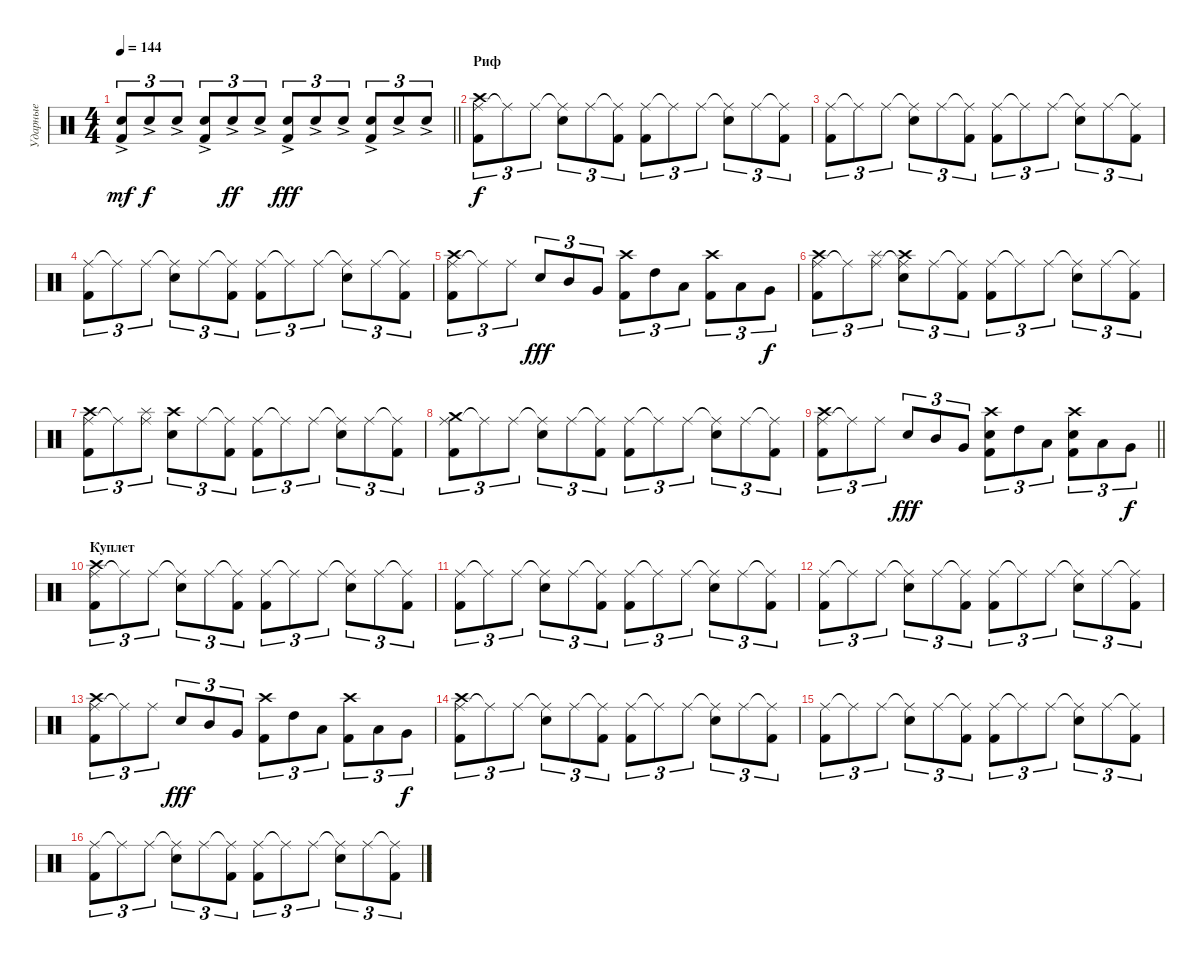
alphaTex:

\track ("Ударные" "Ударные") {instrument percussion}
\staff {score}
\articulation defaults
\ts (4 4)
\tempo 144
\clef neutral
\barLineRight lightlight
\ks c
("Snare (hit) 2"{ac} "Kick (hit) 2").8{tu (3 2) dy mf} "Snare (hit) 2"{ac}.8{tu (3 2) dy f} "Snare (hit) 2"{ac}.8{tu (3 2)} ("Snare (hit) 2"{ac} "Kick (hit) 2").8{tu (3 2)} "Snare (hit) 2"{ac}.8{tu (3 2) dy ff} "Snare (hit) 2"{ac}.8{tu (3 2)} ("Snare (hit) 2"{ac} "Kick (hit) 2").8{tu (3 2) dy fff} "Snare (hit) 2"{ac}.8{tu (3 2)} "Snare (hit) 2"{ac}.8{tu (3 2)} ("Snare (hit) 2"{ac} "Kick (hit) 2").8{tu (3 2)} "Snare (hit) 2"{ac}.8{tu (3 2)} "Snare (hit) 2"{ac}.8{tu (3 2)} |
\section ("" "Риф")
("Ride (middle)" "Kick (hit) 2" "Crash high (hit)").8{tu (3 2) dy f volume 14} "Ride (middle)"{t}.8{tu (3 2)} "Ride (middle)".8{tu (3 2)} ("Ride (middle)"{t} "Snare (hit) 2").8{tu (3 2)} "Ride (middle)".8{tu (3 2)} ("Ride (middle)"{t} "Kick (hit) 2").8{tu (3 2)} ("Ride (middle)" "Kick (hit) 2").8{tu (3 2)} "Ride (middle)"{t}.8{tu (3 2)} "Ride (middle)".8{tu (3 2)} ("Ride (middle)"{t} "Snare (hit) 2").8{tu (3 2)} "Ride (middle)".8{tu (3 2)} ("Ride (middle)"{t} "Kick (hit) 2").8{tu (3 2)} |
("Ride (middle)" "Kick (hit) 2").8{tu (3 2)} "Ride (middle)"{t}.8{tu (3 2)} "Ride (middle)".8{tu (3 2)} ("Ride (middle)"{t} "Snare (hit) 2").8{tu (3 2)} "Ride (middle)".8{tu (3 2)} ("Ride (middle)"{t} "Kick (hit) 2").8{tu (3 2)} ("Ride (middle)" "Kick (hit) 2").8{tu (3 2)} "Ride (middle)"{t}.8{tu (3 2)} "Ride (middle)".8{tu (3 2)} ("Ride (middle)"{t} "Snare (hit) 2").8{tu (3 2)} "Ride (middle)".8{tu (3 2)} ("Ride (middle)"{t} "Kick (hit) 2").8{tu (3 2)} |
("Ride (middle)" "Kick (hit) 2").8{tu (3 2)} "Ride (middle)"{t}.8{tu (3 2)} "Ride (middle)".8{tu (3 2)} ("Ride (middle)"{t} "Snare (hit) 2").8{tu (3 2)} "Ride (middle)".8{tu (3 2)} ("Ride (middle)"{t} "Kick (hit) 2").8{tu (3 2)} ("Ride (middle)" "Kick (hit) 2").8{tu (3 2)} "Ride (middle)"{t}.8{tu (3 2)} "Ride (middle)".8{tu (3 2)} ("Ride (middle)"{t} "Snare (hit) 2").8{tu (3 2)} "Ride (middle)".8{tu (3 2)} ("Ride (middle)"{t} "Kick (hit) 2").8{tu (3 2)} |
("Ride (middle)" "Kick (hit) 2" "Crash high (hit)").8{tu (3 2)} "Ride (middle)"{t}.8{tu (3 2)} "Ride (middle)".8{tu (3 2)} "Snare (hit) 2".8{tu (3 2) dy fff} "Mid Tom (hit)".8{tu (3 2)} "Very Low Tom (hit)".8{tu (3 2)} ("Kick (hit) 2" "Crash high (hit)").8{tu (3 2)} "High Tom (hit)".8{tu (3 2)} "Low Tom (hit)".8{tu (3 2)} ("Crash high (hit)" "Kick (hit) 2").8{tu (3 2)} "Low Tom (hit)".8{tu (3 2)} "Very Low Tom (hit)".8{tu (3 2) dy f} |
("Ride (middle)" "Kick (hit) 2" "Crash high (hit)").8{tu (3 2)} "Ride (middle)"{t}.8{tu (3 2)} ("Ride (middle)" "Splash (hit)").8{tu (3 2)} ("Ride (middle)"{t} "Snare (hit) 2" "Crash high (hit)").8{tu (3 2)} "Ride (middle)".8{tu (3 2)} ("Ride (middle)"{t} "Kick (hit) 2").8{tu (3 2)} ("Ride (middle)" "Kick (hit) 2").8{tu (3 2)} "Ride (middle)"{t}.8{tu (3 2)} "Ride (middle)".8{tu (3 2)} ("Ride (middle)"{t} "Snare (hit) 2").8{tu (3 2)} "Ride (middle)".8{tu (3 2)} ("Ride (middle)"{t} "Kick (hit) 2").8{tu (3 2)} |
("Ride (middle)" "Kick (hit) 2" "Crash high (hit)").8{tu (3 2)} "Ride (middle)"{t}.8{tu (3 2)} ("Ride (middle)" "Splash (hit)").8{tu (3 2)} ("Crash high (hit)" "Snare (hit) 2").8{tu (3 2)} "Ride (middle)".8{tu (3 2)} ("Ride (middle)"{t} "Kick (hit) 2").8{tu (3 2)} ("Ride (middle)" "Kick (hit) 2").8{tu (3 2)} "Ride (middle)"{t}.8{tu (3 2)} "Ride (middle)".8{tu (3 2)} ("Ride (middle)"{t} "Snare (hit) 2").8{tu (3 2)} "Ride (middle)".8{tu (3 2)} ("Ride (middle)"{t} "Kick (hit) 2").8{tu (3 2)} |
("Ride (middle)" "Kick (hit) 2" "Crash medium (hit)").8{tu (3 2)} "Ride (middle)"{t}.8{tu (3 2)} "Ride (middle)".8{tu (3 2)} ("Ride (middle)"{t} "Snare (hit) 2").8{tu (3 2)} "Ride (middle)".8{tu (3 2)} ("Ride (middle)"{t} "Kick (hit) 2").8{tu (3 2)} ("Ride (middle)" "Kick (hit) 2").8{tu (3 2)} "Ride (middle)"{t}.8{tu (3 2)} "Ride (middle)".8{tu (3 2)} ("Ride (middle)"{t} "Snare (hit) 2").8{tu (3 2)} "Ride (middle)".8{tu (3 2)} ("Ride (middle)"{t} "Kick (hit) 2").8{tu (3 2)} |
\barLineRight lightlight
("Ride (middle)" "Kick (hit) 2" "Crash high (hit)").8{tu (3 2)} "Ride (middle)"{t}.8{tu (3 2)} "Ride (middle)".8{tu (3 2)} "Snare (hit) 2".8{tu (3 2) dy fff} "Mid Tom (hit)".8{tu (3 2)} "Very Low Tom (hit)".8{tu (3 2)} ("Kick (hit) 2" "Crash high (hit)" "Snare (hit) 2").8{tu (3 2)} "High Tom (hit)".8{tu (3 2)} "Low Tom (hit)".8{tu (3 2)} ("Crash high (hit)" "Kick (hit) 2" "Snare (hit) 2").8{tu (3 2)} "Low Tom (hit)".8{tu (3 2)} "Very Low Tom (hit)".8{tu (3 2) dy f} |
\section ("" "Куплет")
("Ride (middle)" "Kick (hit) 2" "Crash high (hit)").8{tu (3 2)} "Ride (middle)"{t}.8{tu (3 2)} "Ride (middle)".8{tu (3 2)} ("Ride (middle)"{t} "Snare (hit) 2").8{tu (3 2)} "Ride (middle)".8{tu (3 2)} ("Ride (middle)"{t} "Kick (hit) 2").8{tu (3 2)} ("Ride (middle)" "Kick (hit) 2").8{tu (3 2)} "Ride (middle)"{t}.8{tu (3 2)} "Ride (middle)".8{tu (3 2)} ("Ride (middle)"{t} "Snare (hit) 2").8{tu (3 2)} "Ride (middle)".8{tu (3 2)} ("Ride (middle)"{t} "Kick (hit) 2").8{tu (3 2)} |
("Ride (middle)" "Kick (hit) 2").8{tu (3 2)} "Ride (middle)"{t}.8{tu (3 2)} "Ride (middle)".8{tu (3 2)} ("Ride (middle)"{t} "Snare (hit) 2").8{tu (3 2)} "Ride (middle)".8{tu (3 2)} ("Ride (middle)"{t} "Kick (hit) 2").8{tu (3 2)} ("Ride (middle)" "Kick (hit) 2").8{tu (3 2)} "Ride (middle)"{t}.8{tu (3 2)} "Ride (middle)".8{tu (3 2)} ("Ride (middle)"{t} "Snare (hit) 2").8{tu (3 2)} "Ride (middle)".8{tu (3 2)} ("Ride (middle)"{t} "Kick (hit) 2").8{tu (3 2)} |
("Ride (middle)" "Kick (hit) 2").8{tu (3 2)} "Ride (middle)"{t}.8{tu (3 2)} "Ride (middle)".8{tu (3 2)} ("Ride (middle)"{t} "Snare (hit) 2").8{tu (3 2)} "Ride (middle)".8{tu (3 2)} ("Ride (middle)"{t} "Kick (hit) 2").8{tu (3 2)} ("Ride (middle)" "Kick (hit) 2").8{tu (3 2)} "Ride (middle)"{t}.8{tu (3 2)} "Ride (middle)".8{tu (3 2)} ("Ride (middle)"{t} "Snare (hit) 2").8{tu (3 2)} "Ride (middle)".8{tu (3 2)} ("Ride (middle)"{t} "Kick (hit) 2").8{tu (3 2)} |
("Ride (middle)" "Kick (hit) 2" "Crash high (hit)").8{tu (3 2)} "Ride (middle)"{t}.8{tu (3 2)} "Ride (middle)".8{tu (3 2)} "Snare (hit) 2".8{tu (3 2) dy fff} "Mid Tom (hit)".8{tu (3 2)} "Very Low Tom (hit)".8{tu (3 2)} ("Kick (hit) 2" "Crash high (hit)").8{tu (3 2)} "High Tom (hit)".8{tu (3 2)} "Low Tom (hit)".8{tu (3 2)} ("Crash high (hit)" "Kick (hit) 2").8{tu (3 2)} "Low Tom (hit)".8{tu (3 2)} "Very Low Tom (hit)".8{tu (3 2) dy f} |
("Ride (middle)" "Kick (hit) 2" "Crash high (hit)").8{tu (3 2)} "Ride (middle)"{t}.8{tu (3 2)} "Ride (middle)".8{tu (3 2)} ("Ride (middle)"{t} "Snare (hit) 2").8{tu (3 2)} "Ride (middle)".8{tu (3 2)} ("Ride (middle)"{t} "Kick (hit) 2").8{tu (3 2)} ("Ride (middle)" "Kick (hit) 2").8{tu (3 2)} "Ride (middle)"{t}.8{tu (3 2)} "Ride (middle)".8{tu (3 2)} ("Ride (middle)"{t} "Snare (hit) 2").8{tu (3 2)} "Ride (middle)".8{tu (3 2)} ("Ride (middle)"{t} "Kick (hit) 2").8{tu (3 2)} |
("Ride (middle)" "Kick (hit) 2").8{tu (3 2)} "Ride (middle)"{t}.8{tu (3 2)} "Ride (middle)".8{tu (3 2)} ("Ride (middle)"{t} "Snare (hit) 2").8{tu (3 2)} "Ride (middle)".8{tu (3 2)} ("Ride (middle)"{t} "Kick (hit) 2").8{tu (3 2)} ("Ride (middle)" "Kick (hit) 2").8{tu (3 2)} "Ride (middle)"{t}.8{tu (3 2)} "Ride (middle)".8{tu (3 2)} ("Ride (middle)"{t} "Snare (hit) 2").8{tu (3 2)} "Ride (middle)".8{tu (3 2)} ("Ride (middle)"{t} "Kick (hit) 2").8{tu (3 2)} |
("Ride (middle)" "Kick (hit) 2").8{tu (3 2)} "Ride (middle)"{t}.8{tu (3 2)} "Ride (middle)".8{tu (3 2)} ("Ride (middle)"{t} "Snare (hit) 2").8{tu (3 2)} "Ride (middle)".8{tu (3 2)} ("Ride (middle)"{t} "Kick (hit) 2").8{tu (3 2)} ("Ride (middle)" "Kick (hit) 2").8{tu (3 2)} "Ride (middle)"{t}.8{tu (3 2)} "Ride (middle)".8{tu (3 2)} ("Ride (middle)"{t} "Snare (hit) 2").8{tu (3 2)} "Ride (middle)".8{tu (3 2)} ("Ride (middle)"{t} "Kick (hit) 2").8{tu (3 2)}
